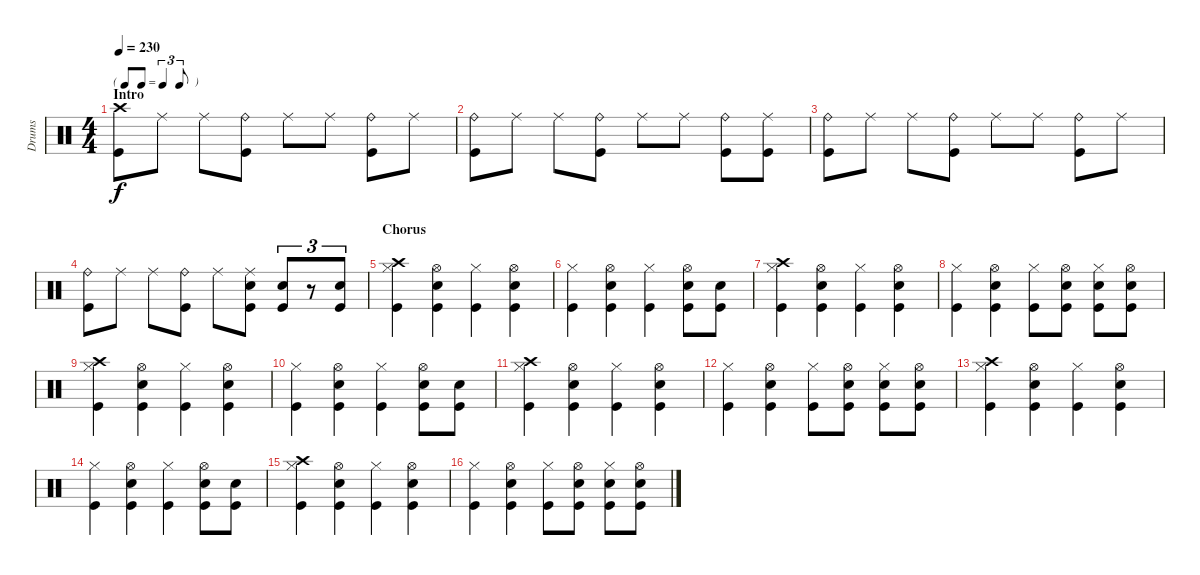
\track ("Drums" "Drums") {instrument percussion}
\staff {score}
\articulation defaults
\ts (4 4)
\tf triplet8th
\section ("" "Intro")
\tempo 230
\clef neutral
\ks c
("Crash high (hit)" "Kick (hit)").8{dy f} "Ride (middle)".8 "Ride (middle)".8 ("Ride (bell)" "Kick (hit)").8 "Ride (middle)".8 "Ride (middle)".8 ("Ride (bell)" "Kick (hit)").8 "Ride (middle)".8 |
("Ride (bell)" "Kick (hit)").8 "Ride (middle)".8 "Ride (middle)".8 ("Ride (bell)" "Kick (hit)").8 "Ride (middle)".8 "Ride (middle)".8 ("Ride (bell)" "Kick (hit)").8 ("Ride (middle)" "Kick (hit)").8 |
("Ride (bell)" "Kick (hit)").8 "Ride (middle)".8 "Ride (middle)".8 ("Ride (bell)" "Kick (hit)").8 "Ride (middle)".8 "Ride (middle)".8 ("Ride (bell)" "Kick (hit)").8 "Ride (middle)".8 |
("Ride (bell)" "Kick (hit)").8 "Ride (middle)".8 "Ride (middle)".8 ("Ride (bell)" "Kick (hit)").8 "Ride (middle)".8 ("Ride (middle)" "Electric Snare (hit)" "Kick (hit)").8 ("Electric Snare (hit)" "Kick (hit)").8{tu (3 2)} r.8{tu (3 2)} ("Electric Snare (hit)" "Kick (hit)").8{tu (3 2)} |
\section ("" "Chorus")
("Crash high (hit)" "Hi-Hat (closed)" "Kick (hit)").4 ("Hi-Hat (open)" "Electric Snare (hit)" "Kick (hit)").4 ("Hi-Hat (closed)" "Kick (hit)").4 ("Hi-Hat (open)" "Electric Snare (hit)" "Kick (hit)").4 |
("Hi-Hat (closed)" "Kick (hit)").4 ("Hi-Hat (open)" "Electric Snare (hit)" "Kick (hit)").4 ("Hi-Hat (closed)" "Kick (hit)").4 ("Hi-Hat (open)" "Electric Snare (hit)" "Kick (hit)").8 ("Electric Snare (hit)" "Kick (hit)").8 |
("Crash high (hit)" "Hi-Hat (closed)" "Kick (hit)").4 ("Hi-Hat (open)" "Electric Snare (hit)" "Kick (hit)").4 ("Hi-Hat (closed)" "Kick (hit)").4 ("Hi-Hat (open)" "Electric Snare (hit)" "Kick (hit)").4 |
("Hi-Hat (closed)" "Kick (hit)").4 ("Hi-Hat (open)" "Electric Snare (hit)" "Kick (hit)").4 ("Hi-Hat (closed)" "Kick (hit)").8 ("Hi-Hat (open)" "Electric Snare (hit)" "Kick (hit)").8 ("Hi-Hat (closed)" "Electric Snare (hit)" "Kick (hit)").8 ("Hi-Hat (open)" "Electric Snare (hit)" "Kick (hit)").8 |
("Crash high (hit)" "Hi-Hat (closed)" "Kick (hit)").4 ("Hi-Hat (open)" "Electric Snare (hit)" "Kick (hit)").4 ("Hi-Hat (closed)" "Kick (hit)").4 ("Hi-Hat (open)" "Electric Snare (hit)" "Kick (hit)").4 |
("Hi-Hat (closed)" "Kick (hit)").4 ("Hi-Hat (open)" "Electric Snare (hit)" "Kick (hit)").4 ("Hi-Hat (closed)" "Kick (hit)").4 ("Hi-Hat (open)" "Electric Snare (hit)" "Kick (hit)").8 ("Electric Snare (hit)" "Kick (hit)").8 |
("Crash high (hit)" "Hi-Hat (closed)" "Kick (hit)").4 ("Hi-Hat (open)" "Electric Snare (hit)" "Kick (hit)").4 ("Hi-Hat (closed)" "Kick (hit)").4 ("Hi-Hat (open)" "Electric Snare (hit)" "Kick (hit)").4 |
("Hi-Hat (closed)" "Kick (hit)").4 ("Hi-Hat (open)" "Electric Snare (hit)" "Kick (hit)").4 ("Hi-Hat (closed)" "Kick (hit)").8 ("Hi-Hat (open)" "Electric Snare (hit)" "Kick (hit)").8 ("Hi-Hat (closed)" "Electric Snare (hit)" "Kick (hit)").8 ("Hi-Hat (open)" "Electric Snare (hit)" "Kick (hit)").8 |
("Crash high (hit)" "Hi-Hat (closed)" "Kick (hit)").4 ("Hi-Hat (open)" "Electric Snare (hit)" "Kick (hit)").4 ("Hi-Hat (closed)" "Kick (hit)").4 ("Hi-Hat (open)" "Electric Snare (hit)" "Kick (hit)").4 |
("Hi-Hat (closed)" "Kick (hit)").4 ("Hi-Hat (open)" "Electric Snare (hit)" "Kick (hit)").4 ("Hi-Hat (closed)" "Kick (hit)").4 ("Hi-Hat (open)" "Electric Snare (hit)" "Kick (hit)").8 ("Electric Snare (hit)" "Kick (hit)").8 |
("Crash high (hit)" "Hi-Hat (closed)" "Kick (hit)").4 ("Hi-Hat (open)" "Electric Snare (hit)" "Kick (hit)").4 ("Hi-Hat (closed)" "Kick (hit)").4 ("Hi-Hat (open)" "Electric Snare (hit)" "Kick (hit)").4 |
("Hi-Hat (closed)" "Kick (hit)").4 ("Hi-Hat (open)" "Electric Snare (hit)" "Kick (hit)").4 ("Hi-Hat (closed)" "Kick (hit)").8 ("Hi-Hat (open)" "Electric Snare (hit)" "Kick (hit)").8 ("Hi-Hat (closed)" "Electric Snare (hit)" "Kick (hit)").8 ("Hi-Hat (open)" "Electric Snare (hit)" "Kick (hit)").8
